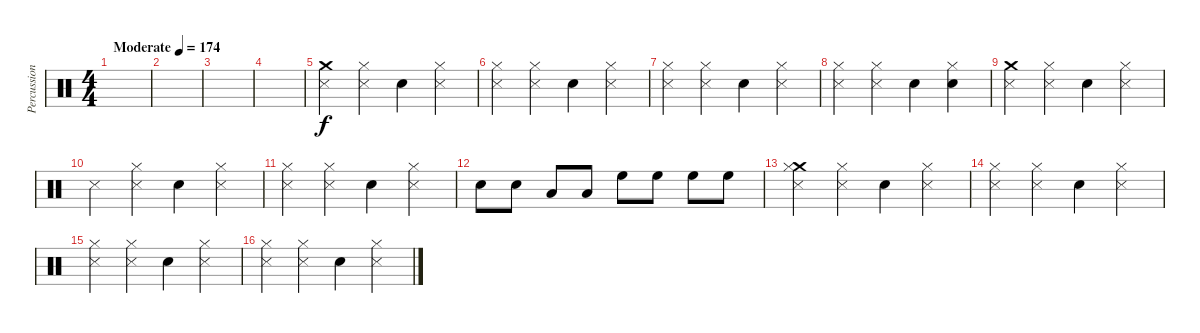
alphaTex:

\track ("Percussion" "Percussion") {instrument percussion}
\staff {score}
\articulation defaults
\ts (4 4)
\tempo (174 "Moderate")
\clef neutral
\ks c
|
|
|
|
("Crash medium (hit)" "Metronome (hit)").4 ("Hi-Hat (closed)" "Metronome (hit)").4 "Electric Snare (hit)".4 ("Hi-Hat (closed)" "Metronome (hit)").4 |
("Hi-Hat (closed)" "Metronome (hit)").4 ("Hi-Hat (closed)" "Metronome (hit)").4 "Electric Snare (hit)".4 ("Hi-Hat (closed)" "Metronome (hit)").4 |
("Hi-Hat (closed)" "Metronome (hit)").4 ("Hi-Hat (closed)" "Metronome (hit)").4 "Electric Snare (hit)".4 ("Hi-Hat (closed)" "Metronome (hit)").4 |
("Hi-Hat (closed)" "Metronome (hit)").4 ("Hi-Hat (closed)" "Metronome (hit)").4 "Electric Snare (hit)".4 ("Hi-Hat (closed)" "Electric Snare (hit)").4 |
("Crash medium (hit)" "Metronome (hit)").4 ("Hi-Hat (closed)" "Metronome (hit)").4 "Electric Snare (hit)".4 ("Hi-Hat (closed)" "Metronome (hit)").4 |
"Metronome (hit)".4 ("Hi-Hat (closed)" "Metronome (hit)").4 "Electric Snare (hit)".4 ("Hi-Hat (closed)" "Metronome (hit)").4 |
("Hi-Hat (closed)" "Metronome (hit)").4 ("Hi-Hat (closed)" "Metronome (hit)").4 "Electric Snare (hit)".4 ("Hi-Hat (closed)" "Metronome (hit)").4 |
"Electric Snare (hit)".8 "Electric Snare (hit)".8 "Low Tom (hit)".8 "Low Tom (hit)".8 "High Floor Tom (hit)".8 "High Floor Tom (hit)".8 "High Floor Tom (hit)".8 "High Floor Tom (hit)".8 |
("Crash medium (hit)" "Hi-Hat (closed)" "Metronome (hit)").4 ("Hi-Hat (closed)" "Metronome (hit)").4 "Electric Snare (hit)".4 ("Hi-Hat (closed)" "Metronome (hit)").4 |
("Hi-Hat (closed)" "Metronome (hit)").4 ("Hi-Hat (closed)" "Metronome (hit)").4 "Electric Snare (hit)".4 ("Hi-Hat (closed)" "Metronome (hit)").4 |
("Hi-Hat (closed)" "Metronome (hit)").4 ("Hi-Hat (closed)" "Metronome (hit)").4 "Electric Snare (hit)".4 ("Hi-Hat (closed)" "Metronome (hit)").4 |
("Hi-Hat (closed)" "Metronome (hit)").4 ("Hi-Hat (closed)" "Metronome (hit)").4 "Electric Snare (hit)".4 ("Hi-Hat (closed)" "Metronome (hit)").4
